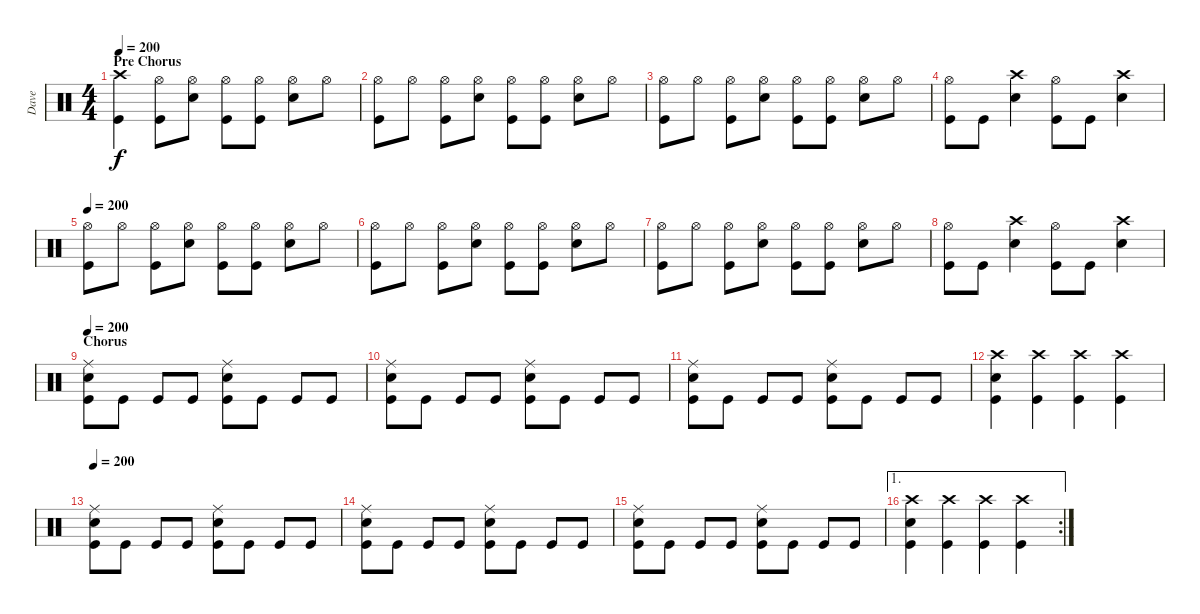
\track ("Dave" "Dave") {instrument percussion}
\staff {score}
\articulation defaults
\ts (4 4)
\section ("" "Pre Chorus")
\tempo 200
\clef neutral
\ks c
("Crash high (hit)" "Kick (hit)").4{dy f} ("Hi-Hat (open)" "Kick (hit)").8 ("Hi-Hat (open)" "Snare (hit) 2").8 ("Hi-Hat (open)" "Kick (hit)").8 ("Hi-Hat (open)" "Kick (hit)").8 ("Hi-Hat (open)" "Snare (hit) 2").8 "Hi-Hat (open)".8 |
("Hi-Hat (open)" "Kick (hit)").8 "Hi-Hat (open)".8 ("Hi-Hat (open)" "Kick (hit)").8 ("Hi-Hat (open)" "Snare (hit) 2").8 ("Hi-Hat (open)" "Kick (hit)").8 ("Hi-Hat (open)" "Kick (hit)").8 ("Hi-Hat (open)" "Snare (hit) 2").8 "Hi-Hat (open)".8 |
("Hi-Hat (open)" "Kick (hit)").8 "Hi-Hat (open)".8 ("Hi-Hat (open)" "Kick (hit)").8 ("Hi-Hat (open)" "Snare (hit) 2").8 ("Hi-Hat (open)" "Kick (hit)").8 ("Hi-Hat (open)" "Kick (hit)").8 ("Hi-Hat (open)" "Snare (hit) 2").8 "Hi-Hat (open)".8 |
("Hi-Hat (open)" "Kick (hit)").8 "Kick (hit)".8 ("Crash high (hit)" "Snare (hit) 2").4 ("Hi-Hat (open)" "Kick (hit)").8 "Kick (hit)".8 ("Crash high (hit)" "Snare (hit) 2").4 |
\tempo 200
("Hi-Hat (open)" "Kick (hit)").8 "Hi-Hat (open)".8 ("Hi-Hat (open)" "Kick (hit)").8 ("Hi-Hat (open)" "Snare (hit) 2").8 ("Hi-Hat (open)" "Kick (hit)").8 ("Hi-Hat (open)" "Kick (hit)").8 ("Hi-Hat (open)" "Snare (hit) 2").8 "Hi-Hat (open)".8 |
("Hi-Hat (open)" "Kick (hit)").8 "Hi-Hat (open)".8 ("Hi-Hat (open)" "Kick (hit)").8 ("Hi-Hat (open)" "Snare (hit) 2").8 ("Hi-Hat (open)" "Kick (hit)").8 ("Hi-Hat (open)" "Kick (hit)").8 ("Hi-Hat (open)" "Snare (hit) 2").8 "Hi-Hat (open)".8 |
("Hi-Hat (open)" "Kick (hit)").8 "Hi-Hat (open)".8 ("Hi-Hat (open)" "Kick (hit)").8 ("Hi-Hat (open)" "Snare (hit) 2").8 ("Hi-Hat (open)" "Kick (hit)").8 ("Hi-Hat (open)" "Kick (hit)").8 ("Hi-Hat (open)" "Snare (hit) 2").8 "Hi-Hat (open)".8 |
("Hi-Hat (open)" "Kick (hit)").8 "Kick (hit)".8 ("Crash high (hit)" "Snare (hit) 2").4 ("Hi-Hat (open)" "Kick (hit)").8 "Kick (hit)".8 ("Crash high (hit)" "Snare (hit) 2").4 |
\section ("" "Chorus")
\tempo 200
("Ride (middle)" "Snare (hit) 2" "Kick (hit)").8 "Kick (hit)".8 "Kick (hit)".8 "Kick (hit)".8 ("Ride (middle)" "Snare (hit) 2" "Kick (hit)").8 "Kick (hit)".8 "Kick (hit)".8 "Kick (hit)".8 |
("Ride (middle)" "Snare (hit) 2" "Kick (hit)").8 "Kick (hit)".8 "Kick (hit)".8 "Kick (hit)".8 ("Ride (middle)" "Snare (hit) 2" "Kick (hit)").8 "Kick (hit)".8 "Kick (hit)".8 "Kick (hit)".8 |
("Ride (middle)" "Snare (hit) 2" "Kick (hit)").8 "Kick (hit)".8 "Kick (hit)".8 "Kick (hit)".8 ("Ride (middle)" "Snare (hit) 2" "Kick (hit)").8 "Kick (hit)".8 "Kick (hit)".8 "Kick (hit)".8 |
("Crash high (hit)" "Snare (hit) 2" "Kick (hit)").4 ("Crash high (hit)" "Kick (hit)").4 ("Crash high (hit)" "Kick (hit)").4 ("Crash high (hit)" "Kick (hit)").4 |
\tempo 200
("Ride (middle)" "Snare (hit) 2" "Kick (hit)").8 "Kick (hit)".8 "Kick (hit)".8 "Kick (hit)".8 ("Ride (middle)" "Snare (hit) 2" "Kick (hit)").8 "Kick (hit)".8 "Kick (hit)".8 "Kick (hit)".8 |
("Ride (middle)" "Snare (hit) 2" "Kick (hit)").8 "Kick (hit)".8 "Kick (hit)".8 "Kick (hit)".8 ("Ride (middle)" "Snare (hit) 2" "Kick (hit)").8 "Kick (hit)".8 "Kick (hit)".8 "Kick (hit)".8 |
("Ride (middle)" "Snare (hit) 2" "Kick (hit)").8 "Kick (hit)".8 "Kick (hit)".8 "Kick (hit)".8 ("Ride (middle)" "Snare (hit) 2" "Kick (hit)").8 "Kick (hit)".8 "Kick (hit)".8 "Kick (hit)".8 |
\ae 1
\rc 2
("Crash high (hit)" "Snare (hit) 2" "Kick (hit)").4 ("Crash high (hit)" "Kick (hit)").4 ("Crash high (hit)" "Kick (hit)").4 ("Crash high (hit)" "Kick (hit)").4
